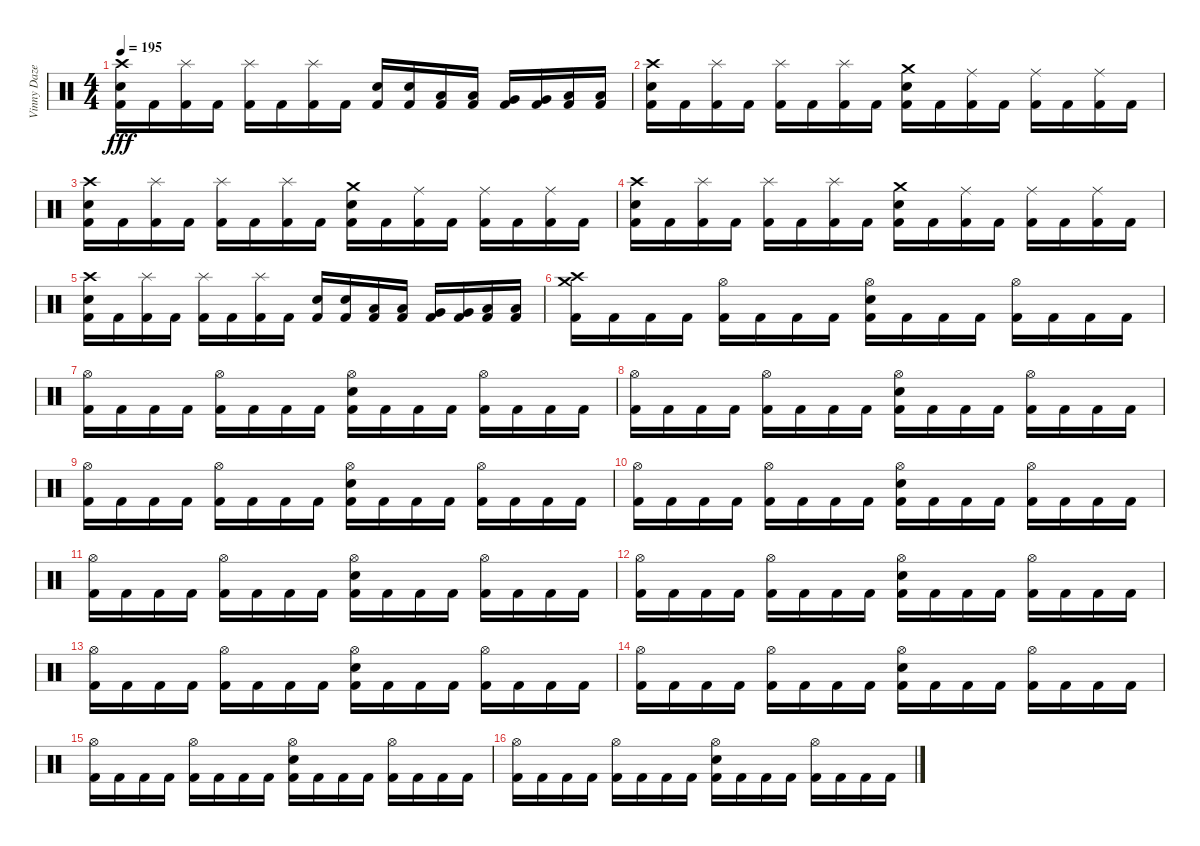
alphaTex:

\track ("Vinny Daze (R.I.P.)" "Vinny Daze") {instrument percussion}
\staff {score}
\articulation defaults
\ts (4 4)
\tempo 195
\clef neutral
\ks c
("Crash high (hit)" "Electric Snare (hit)" "Kick (hit) 2").16{dy fff} "Kick (hit) 2".16 ("Splash (hit)" "Kick (hit) 2").16 "Kick (hit) 2".16 ("Splash (hit)" "Kick (hit) 2").16 "Kick (hit) 2".16 ("Splash (hit)" "Kick (hit) 2").16 "Kick (hit) 2".16 ("Electric Snare (hit)" "Kick (hit) 2").16 ("Electric Snare (hit)" "Kick (hit) 2").16 ("Low Tom (hit)" "Kick (hit) 2").16 ("Low Tom (hit)" "Kick (hit) 2").16 ("Very Low Tom (hit)" "Kick (hit) 2").16 ("Very Low Tom (hit)" "Kick (hit) 2").16 ("Low Floor Tom (hit)" "Kick (hit) 2").16 ("Low Floor Tom (hit)" "Kick (hit) 2").16 |
("Crash high (hit)" "Electric Snare (hit)" "Kick (hit) 2").16 "Kick (hit) 2".16 ("Splash (hit)" "Kick (hit) 2").16 "Kick (hit) 2".16 ("Splash (hit)" "Kick (hit) 2").16 "Kick (hit) 2".16 ("Splash (hit)" "Kick (hit) 2").16 "Kick (hit) 2".16 ("Crash medium (hit)" "Electric Snare (hit)" "Kick (hit) 2").16 "Kick (hit) 2".16 ("Ride (middle)" "Kick (hit) 2").16 "Kick (hit) 2".16 ("Ride (middle)" "Kick (hit) 2").16 "Kick (hit) 2".16 ("Ride (middle)" "Kick (hit) 2").16 "Kick (hit) 2".16 |
("Crash high (hit)" "Electric Snare (hit)" "Kick (hit) 2").16 "Kick (hit) 2".16 ("Splash (hit)" "Kick (hit) 2").16 "Kick (hit) 2".16 ("Splash (hit)" "Kick (hit) 2").16 "Kick (hit) 2".16 ("Splash (hit)" "Kick (hit) 2").16 "Kick (hit) 2".16 ("Crash medium (hit)" "Electric Snare (hit)" "Kick (hit) 2").16 "Kick (hit) 2".16 ("Ride (middle)" "Kick (hit) 2").16 "Kick (hit) 2".16 ("Ride (middle)" "Kick (hit) 2").16 "Kick (hit) 2".16 ("Ride (middle)" "Kick (hit) 2").16 "Kick (hit) 2".16 |
("Crash high (hit)" "Electric Snare (hit)" "Kick (hit) 2").16 "Kick (hit) 2".16 ("Splash (hit)" "Kick (hit) 2").16 "Kick (hit) 2".16 ("Splash (hit)" "Kick (hit) 2").16 "Kick (hit) 2".16 ("Splash (hit)" "Kick (hit) 2").16 "Kick (hit) 2".16 ("Crash medium (hit)" "Electric Snare (hit)" "Kick (hit) 2").16 "Kick (hit) 2".16 ("Ride (middle)" "Kick (hit) 2").16 "Kick (hit) 2".16 ("Ride (middle)" "Kick (hit) 2").16 "Kick (hit) 2".16 ("Ride (middle)" "Kick (hit) 2").16 "Kick (hit) 2".16 |
("Crash high (hit)" "Electric Snare (hit)" "Kick (hit) 2").16 "Kick (hit) 2".16 ("Splash (hit)" "Kick (hit) 2").16 "Kick (hit) 2".16 ("Splash (hit)" "Kick (hit) 2").16 "Kick (hit) 2".16 ("Splash (hit)" "Kick (hit) 2").16 "Kick (hit) 2".16 ("Electric Snare (hit)" "Kick (hit) 2").16 ("Electric Snare (hit)" "Kick (hit) 2").16 ("Low Tom (hit)" "Kick (hit) 2").16 ("Low Tom (hit)" "Kick (hit) 2").16 ("Very Low Tom (hit)" "Kick (hit) 2").16 ("Very Low Tom (hit)" "Kick (hit) 2").16 ("Low Floor Tom (hit)" "Kick (hit) 2").16 ("Low Floor Tom (hit)" "Kick (hit) 2").16 |
("Crash medium (hit)" "Crash high (hit)" "Kick (hit) 2").16 "Kick (hit) 2".16 "Kick (hit) 2".16 "Kick (hit) 2".16 ("Hi-Hat (open)" "Kick (hit) 2").16 "Kick (hit) 2".16 "Kick (hit) 2".16 "Kick (hit) 2".16 ("Hi-Hat (open)" "Electric Snare (hit)" "Kick (hit) 2").16 "Kick (hit) 2".16 "Kick (hit) 2".16 "Kick (hit) 2".16 ("Hi-Hat (open)" "Kick (hit) 2").16 "Kick (hit) 2".16 "Kick (hit) 2".16 "Kick (hit) 2".16 |
("Hi-Hat (open)" "Kick (hit) 2").16 "Kick (hit) 2".16 "Kick (hit) 2".16 "Kick (hit) 2".16 ("Hi-Hat (open)" "Kick (hit) 2").16 "Kick (hit) 2".16 "Kick (hit) 2".16 "Kick (hit) 2".16 ("Hi-Hat (open)" "Electric Snare (hit)" "Kick (hit) 2").16 "Kick (hit) 2".16 "Kick (hit) 2".16 "Kick (hit) 2".16 ("Hi-Hat (open)" "Kick (hit) 2").16 "Kick (hit) 2".16 "Kick (hit) 2".16 "Kick (hit) 2".16 |
("Hi-Hat (open)" "Kick (hit) 2").16 "Kick (hit) 2".16 "Kick (hit) 2".16 "Kick (hit) 2".16 ("Hi-Hat (open)" "Kick (hit) 2").16 "Kick (hit) 2".16 "Kick (hit) 2".16 "Kick (hit) 2".16 ("Hi-Hat (open)" "Electric Snare (hit)" "Kick (hit) 2").16 "Kick (hit) 2".16 "Kick (hit) 2".16 "Kick (hit) 2".16 ("Hi-Hat (open)" "Kick (hit) 2").16 "Kick (hit) 2".16 "Kick (hit) 2".16 "Kick (hit) 2".16 |
("Hi-Hat (open)" "Kick (hit) 2").16 "Kick (hit) 2".16 "Kick (hit) 2".16 "Kick (hit) 2".16 ("Hi-Hat (open)" "Kick (hit) 2").16 "Kick (hit) 2".16 "Kick (hit) 2".16 "Kick (hit) 2".16 ("Hi-Hat (open)" "Electric Snare (hit)" "Kick (hit) 2").16 "Kick (hit) 2".16 "Kick (hit) 2".16 "Kick (hit) 2".16 ("Hi-Hat (open)" "Kick (hit) 2").16 "Kick (hit) 2".16 "Kick (hit) 2".16 "Kick (hit) 2".16 |
("Hi-Hat (open)" "Kick (hit) 2").16 "Kick (hit) 2".16 "Kick (hit) 2".16 "Kick (hit) 2".16 ("Hi-Hat (open)" "Kick (hit) 2").16 "Kick (hit) 2".16 "Kick (hit) 2".16 "Kick (hit) 2".16 ("Hi-Hat (open)" "Electric Snare (hit)" "Kick (hit) 2").16 "Kick (hit) 2".16 "Kick (hit) 2".16 "Kick (hit) 2".16 ("Hi-Hat (open)" "Kick (hit) 2").16 "Kick (hit) 2".16 "Kick (hit) 2".16 "Kick (hit) 2".16 |
("Hi-Hat (open)" "Kick (hit) 2").16 "Kick (hit) 2".16 "Kick (hit) 2".16 "Kick (hit) 2".16 ("Hi-Hat (open)" "Kick (hit) 2").16 "Kick (hit) 2".16 "Kick (hit) 2".16 "Kick (hit) 2".16 ("Hi-Hat (open)" "Electric Snare (hit)" "Kick (hit) 2").16 "Kick (hit) 2".16 "Kick (hit) 2".16 "Kick (hit) 2".16 ("Hi-Hat (open)" "Kick (hit) 2").16 "Kick (hit) 2".16 "Kick (hit) 2".16 "Kick (hit) 2".16 |
("Hi-Hat (open)" "Kick (hit) 2").16 "Kick (hit) 2".16 "Kick (hit) 2".16 "Kick (hit) 2".16 ("Hi-Hat (open)" "Kick (hit) 2").16 "Kick (hit) 2".16 "Kick (hit) 2".16 "Kick (hit) 2".16 ("Hi-Hat (open)" "Electric Snare (hit)" "Kick (hit) 2").16 "Kick (hit) 2".16 "Kick (hit) 2".16 "Kick (hit) 2".16 ("Hi-Hat (open)" "Kick (hit) 2").16 "Kick (hit) 2".16 "Kick (hit) 2".16 "Kick (hit) 2".16 |
("Hi-Hat (open)" "Kick (hit) 2").16 "Kick (hit) 2".16 "Kick (hit) 2".16 "Kick (hit) 2".16 ("Hi-Hat (open)" "Kick (hit) 2").16 "Kick (hit) 2".16 "Kick (hit) 2".16 "Kick (hit) 2".16 ("Hi-Hat (open)" "Electric Snare (hit)" "Kick (hit) 2").16 "Kick (hit) 2".16 "Kick (hit) 2".16 "Kick (hit) 2".16 ("Hi-Hat (open)" "Kick (hit) 2").16 "Kick (hit) 2".16 "Kick (hit) 2".16 "Kick (hit) 2".16 |
("Hi-Hat (open)" "Kick (hit) 2").16 "Kick (hit) 2".16 "Kick (hit) 2".16 "Kick (hit) 2".16 ("Hi-Hat (open)" "Kick (hit) 2").16 "Kick (hit) 2".16 "Kick (hit) 2".16 "Kick (hit) 2".16 ("Hi-Hat (open)" "Electric Snare (hit)" "Kick (hit) 2").16 "Kick (hit) 2".16 "Kick (hit) 2".16 "Kick (hit) 2".16 ("Hi-Hat (open)" "Kick (hit) 2").16 "Kick (hit) 2".16 "Kick (hit) 2".16 "Kick (hit) 2".16 |
("Hi-Hat (open)" "Kick (hit) 2").16 "Kick (hit) 2".16 "Kick (hit) 2".16 "Kick (hit) 2".16 ("Hi-Hat (open)" "Kick (hit) 2").16 "Kick (hit) 2".16 "Kick (hit) 2".16 "Kick (hit) 2".16 ("Hi-Hat (open)" "Electric Snare (hit)" "Kick (hit) 2").16 "Kick (hit) 2".16 "Kick (hit) 2".16 "Kick (hit) 2".16 ("Hi-Hat (open)" "Kick (hit) 2").16 "Kick (hit) 2".16 "Kick (hit) 2".16 "Kick (hit) 2".16 |
("Hi-Hat (open)" "Kick (hit) 2").16 "Kick (hit) 2".16 "Kick (hit) 2".16 "Kick (hit) 2".16 ("Hi-Hat (open)" "Kick (hit) 2").16 "Kick (hit) 2".16 "Kick (hit) 2".16 "Kick (hit) 2".16 ("Hi-Hat (open)" "Electric Snare (hit)" "Kick (hit) 2").16 "Kick (hit) 2".16 "Kick (hit) 2".16 "Kick (hit) 2".16 ("Hi-Hat (open)" "Kick (hit) 2").16 "Kick (hit) 2".16 "Kick (hit) 2".16 "Kick (hit) 2".16
